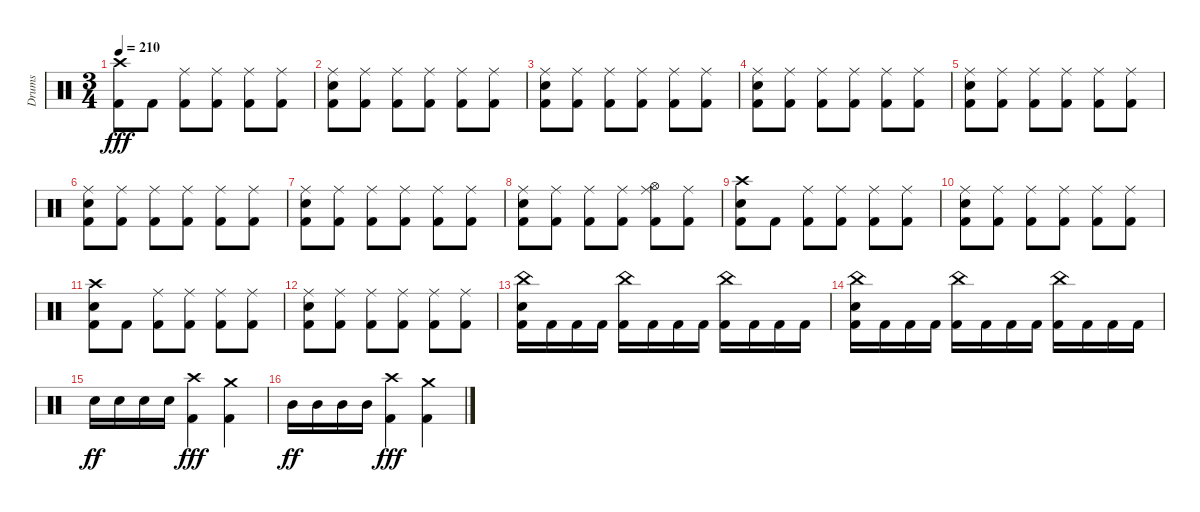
\track ("Drums" "Drums") {instrument percussion}
\staff {score}
\articulation defaults
\ts (3 4)
\tempo 210
\clef neutral
\ks c
("Crash high (hit)" "Kick (hit) 2").8{dy fff} "Kick (hit) 2".8 ("Ride (middle)" "Kick (hit) 2").8 ("Ride (middle)" "Kick (hit) 2").8 ("Ride (middle)" "Kick (hit) 2").8 ("Ride (middle)" "Kick (hit) 2").8 |
("Ride (middle)" "Snare (hit) 2" "Kick (hit) 2").8 ("Ride (middle)" "Kick (hit) 2").8 ("Ride (middle)" "Kick (hit) 2").8 ("Ride (middle)" "Kick (hit) 2").8 ("Ride (middle)" "Kick (hit) 2").8 ("Ride (middle)" "Kick (hit) 2").8 |
("Ride (middle)" "Snare (hit) 2" "Kick (hit) 2").8 ("Ride (middle)" "Kick (hit) 2").8 ("Ride (middle)" "Kick (hit) 2").8 ("Ride (middle)" "Kick (hit) 2").8 ("Ride (middle)" "Kick (hit) 2").8 ("Ride (middle)" "Kick (hit) 2").8 |
("Ride (middle)" "Snare (hit) 2" "Kick (hit) 2").8 ("Ride (middle)" "Kick (hit) 2").8 ("Ride (middle)" "Kick (hit) 2").8 ("Ride (middle)" "Kick (hit) 2").8 ("Ride (middle)" "Kick (hit) 2").8 ("Ride (middle)" "Kick (hit) 2").8 |
("Ride (middle)" "Snare (hit) 2" "Kick (hit) 2").8 ("Ride (middle)" "Kick (hit) 2").8 ("Ride (middle)" "Kick (hit) 2").8 ("Ride (middle)" "Kick (hit) 2").8 ("Ride (middle)" "Kick (hit) 2").8 ("Ride (middle)" "Kick (hit) 2").8 |
("Ride (middle)" "Snare (hit) 2" "Kick (hit) 2").8 ("Ride (middle)" "Kick (hit) 2").8 ("Ride (middle)" "Kick (hit) 2").8 ("Ride (middle)" "Kick (hit) 2").8 ("Ride (middle)" "Kick (hit) 2").8 ("Ride (middle)" "Kick (hit) 2").8 |
("Ride (middle)" "Snare (hit) 2" "Kick (hit) 2").8 ("Ride (middle)" "Kick (hit) 2").8 ("Ride (middle)" "Kick (hit) 2").8 ("Ride (middle)" "Kick (hit) 2").8 ("Ride (middle)" "Kick (hit) 2").8 ("Ride (middle)" "Kick (hit) 2").8 |
("Ride (middle)" "Snare (hit) 2" "Kick (hit) 2").8 ("Ride (middle)" "Kick (hit) 2").8 ("Ride (middle)" "Kick (hit) 2").8 ("Ride (middle)" "Kick (hit) 2").8 ("Hi-Hat (open)" "Ride (middle)" "Kick (hit) 2").8 ("Ride (middle)" "Kick (hit) 2").8 |
("Crash high (hit)" "Snare (hit) 2" "Kick (hit) 2").8 "Kick (hit) 2".8 ("Ride (middle)" "Kick (hit) 2").8 ("Ride (middle)" "Kick (hit) 2").8 ("Ride (middle)" "Kick (hit) 2").8 ("Ride (middle)" "Kick (hit) 2").8 |
("Ride (middle)" "Snare (hit) 2" "Kick (hit) 2").8 ("Ride (middle)" "Kick (hit) 2").8 ("Ride (middle)" "Kick (hit) 2").8 ("Ride (middle)" "Kick (hit) 2").8 ("Ride (middle)" "Kick (hit) 2").8 ("Ride (middle)" "Kick (hit) 2").8 |
("Crash high (hit)" "Snare (hit) 2" "Kick (hit) 2").8 "Kick (hit) 2".8 ("Ride (middle)" "Kick (hit) 2").8 ("Ride (middle)" "Kick (hit) 2").8 ("Ride (middle)" "Kick (hit) 2").8 ("Ride (middle)" "Kick (hit) 2").8 |
("Ride (middle)" "Snare (hit) 2" "Kick (hit) 2").8 ("Ride (middle)" "Kick (hit) 2").8 ("Ride (middle)" "Kick (hit) 2").8 ("Ride (middle)" "Kick (hit) 2").8 ("Ride (middle)" "Kick (hit) 2").8 ("Ride (middle)" "Kick (hit) 2").8 |
("China (hit)" "Snare (hit) 2" "Kick (hit) 2").16 "Kick (hit) 2".16 "Kick (hit) 2".16 "Kick (hit) 2".16 ("China (hit)" "Kick (hit) 2").16 "Kick (hit) 2".16 "Kick (hit) 2".16 "Kick (hit) 2".16 ("China (hit)" "Kick (hit) 2").16 "Kick (hit) 2".16 "Kick (hit) 2".16 "Kick (hit) 2".16 |
("China (hit)" "Snare (hit) 2" "Kick (hit) 2").16 "Kick (hit) 2".16 "Kick (hit) 2".16 "Kick (hit) 2".16 ("China (hit)" "Kick (hit) 2").16 "Kick (hit) 2".16 "Kick (hit) 2".16 "Kick (hit) 2".16 ("China (hit)" "Kick (hit) 2").16 "Kick (hit) 2".16 "Kick (hit) 2".16 "Kick (hit) 2".16 |
"Snare (hit) 2".16{dy ff} "Snare (hit) 2".16 "Snare (hit) 2".16 "Snare (hit) 2".16 ("Crash high (hit)" "Kick (hit) 2").4{dy fff} ("Crash medium (hit)" "Kick (hit) 2").4 |
"Mid Tom (hit)".16{dy ff} "Mid Tom (hit)".16 "Mid Tom (hit)".16 "Mid Tom (hit)".16 ("Crash high (hit)" "Kick (hit) 2").4{dy fff} ("Crash medium (hit)" "Kick (hit) 2").4
